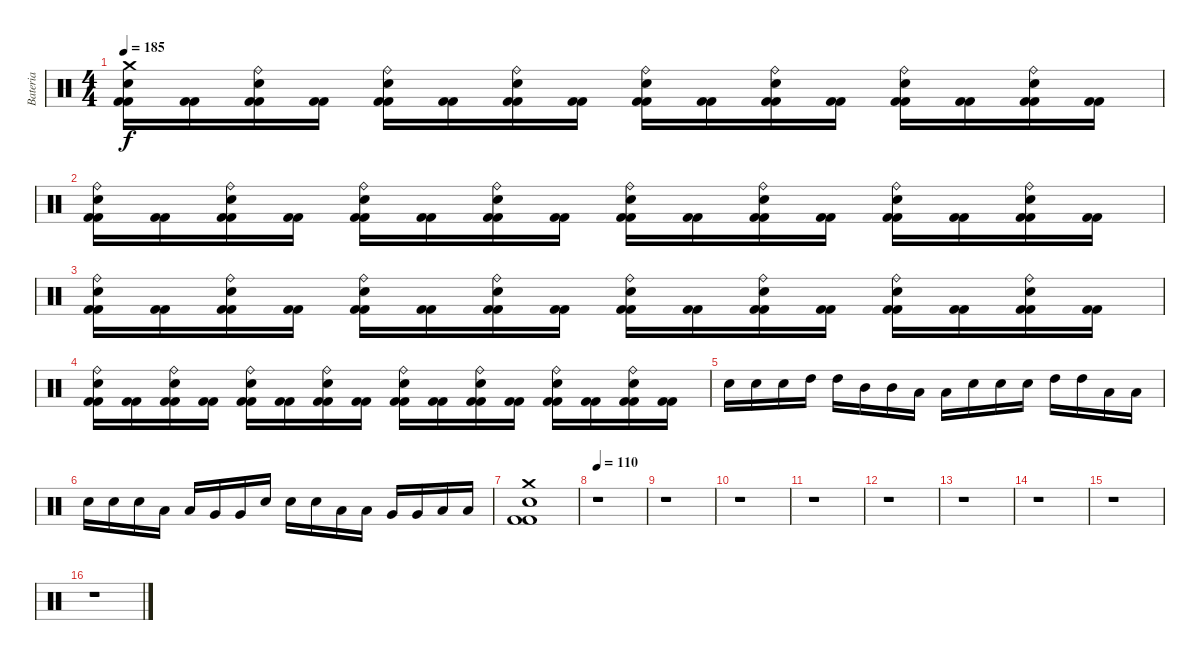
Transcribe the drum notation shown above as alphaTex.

\track ("Bateria" "Bateria") {instrument percussion}
\staff {score}
\articulation defaults
\ts (4 4)
\tempo 185
\clef neutral
\ks c
("Kick (hit) 2" "Kick (hit) 2" "Electric Snare (hit)" "Crash medium (hit)").16{dy f} ("Kick (hit) 2" "Kick (hit) 2").16 ("Kick (hit) 2" "Kick (hit) 2" "Ride (bell)" "Electric Snare (hit)").16 ("Kick (hit) 2" "Kick (hit) 2").16 ("Kick (hit) 2" "Kick (hit) 2" "Electric Snare (hit)" "Ride (bell)").16 ("Kick (hit) 2" "Kick (hit) 2").16 ("Kick (hit) 2" "Kick (hit) 2" "Ride (bell)" "Electric Snare (hit)").16 ("Kick (hit) 2" "Kick (hit) 2").16 ("Kick (hit) 2" "Kick (hit) 2" "Electric Snare (hit)" "Ride (bell)").16 ("Kick (hit) 2" "Kick (hit) 2").16 ("Kick (hit) 2" "Kick (hit) 2" "Ride (bell)" "Electric Snare (hit)").16 ("Kick (hit) 2" "Kick (hit) 2").16 ("Kick (hit) 2" "Kick (hit) 2" "Electric Snare (hit)" "Ride (bell)").16 ("Kick (hit) 2" "Kick (hit) 2").16 ("Kick (hit) 2" "Kick (hit) 2" "Ride (bell)" "Electric Snare (hit)").16 ("Kick (hit) 2" "Kick (hit) 2").16 |
("Kick (hit) 2" "Kick (hit) 2" "Electric Snare (hit)" "Ride (bell)").16 ("Kick (hit) 2" "Kick (hit) 2").16 ("Kick (hit) 2" "Kick (hit) 2" "Ride (bell)" "Electric Snare (hit)").16 ("Kick (hit) 2" "Kick (hit) 2").16 ("Kick (hit) 2" "Kick (hit) 2" "Electric Snare (hit)" "Ride (bell)").16 ("Kick (hit) 2" "Kick (hit) 2").16 ("Kick (hit) 2" "Kick (hit) 2" "Ride (bell)" "Electric Snare (hit)").16 ("Kick (hit) 2" "Kick (hit) 2").16 ("Kick (hit) 2" "Kick (hit) 2" "Electric Snare (hit)" "Ride (bell)").16 ("Kick (hit) 2" "Kick (hit) 2").16 ("Kick (hit) 2" "Kick (hit) 2" "Ride (bell)" "Electric Snare (hit)").16 ("Kick (hit) 2" "Kick (hit) 2").16 ("Kick (hit) 2" "Kick (hit) 2" "Electric Snare (hit)" "Ride (bell)").16 ("Kick (hit) 2" "Kick (hit) 2").16 ("Kick (hit) 2" "Kick (hit) 2" "Ride (bell)" "Electric Snare (hit)").16 ("Kick (hit) 2" "Kick (hit) 2").16 |
("Kick (hit) 2" "Kick (hit) 2" "Electric Snare (hit)" "Ride (bell)").16 ("Kick (hit) 2" "Kick (hit) 2").16 ("Kick (hit) 2" "Kick (hit) 2" "Ride (bell)" "Electric Snare (hit)").16 ("Kick (hit) 2" "Kick (hit) 2").16 ("Kick (hit) 2" "Kick (hit) 2" "Electric Snare (hit)" "Ride (bell)").16 ("Kick (hit) 2" "Kick (hit) 2").16 ("Kick (hit) 2" "Kick (hit) 2" "Ride (bell)" "Electric Snare (hit)").16 ("Kick (hit) 2" "Kick (hit) 2").16 ("Kick (hit) 2" "Kick (hit) 2" "Electric Snare (hit)" "Ride (bell)").16 ("Kick (hit) 2" "Kick (hit) 2").16 ("Kick (hit) 2" "Kick (hit) 2" "Ride (bell)" "Electric Snare (hit)").16 ("Kick (hit) 2" "Kick (hit) 2").16 ("Kick (hit) 2" "Kick (hit) 2" "Electric Snare (hit)" "Ride (bell)").16 ("Kick (hit) 2" "Kick (hit) 2").16 ("Kick (hit) 2" "Kick (hit) 2" "Ride (bell)" "Electric Snare (hit)").16 ("Kick (hit) 2" "Kick (hit) 2").16 |
("Kick (hit) 2" "Kick (hit) 2" "Electric Snare (hit)" "Ride (bell)").16 ("Kick (hit) 2" "Kick (hit) 2").16 ("Kick (hit) 2" "Kick (hit) 2" "Ride (bell)" "Electric Snare (hit)").16 ("Kick (hit) 2" "Kick (hit) 2").16 ("Kick (hit) 2" "Kick (hit) 2" "Electric Snare (hit)" "Ride (bell)").16 ("Kick (hit) 2" "Kick (hit) 2").16 ("Kick (hit) 2" "Kick (hit) 2" "Ride (bell)" "Electric Snare (hit)").16 ("Kick (hit) 2" "Kick (hit) 2").16 ("Kick (hit) 2" "Kick (hit) 2" "Electric Snare (hit)" "Ride (bell)").16 ("Kick (hit) 2" "Kick (hit) 2").16 ("Kick (hit) 2" "Kick (hit) 2" "Ride (bell)" "Electric Snare (hit)").16 ("Kick (hit) 2" "Kick (hit) 2").16 ("Kick (hit) 2" "Kick (hit) 2" "Electric Snare (hit)" "Ride (bell)").16 ("Kick (hit) 2" "Kick (hit) 2").16 ("Kick (hit) 2" "Kick (hit) 2" "Ride (bell)" "Electric Snare (hit)").16 ("Kick (hit) 2" "Kick (hit) 2").16 |
"Electric Snare (hit)".16 "Electric Snare (hit)".16 "Electric Snare (hit)".16 "High Tom (hit)".16 "High Tom (hit)".16 "Mid Tom (hit)".16 "Mid Tom (hit)".16 "Low Tom (hit)".16 "Low Tom (hit)".16 "Electric Snare (hit)".16 "Electric Snare (hit)".16 "Electric Snare (hit)".16 "High Tom (hit)".16 "High Tom (hit)".16 "Low Tom (hit)".16 "Low Tom (hit)".16 |
"Electric Snare (hit)".16 "Electric Snare (hit)".16 "Electric Snare (hit)".16 "Low Tom (hit)".16 "Low Tom (hit)".16 "Very Low Tom (hit)".16 "Very Low Tom (hit)".16 "Electric Snare (hit)".16 "Electric Snare (hit)".16 "Electric Snare (hit)".16 "Low Floor Tom (hit)".16 "Low Floor Tom (hit)".16 "Very Low Tom (hit)".16 "Very Low Tom (hit)".16 "Low Tom (hit)".16 "Low Tom (hit)".16 |
("Kick (hit) 2" "Kick (hit) 2" "Electric Snare (hit)" "Crash medium (hit)").1 |
\tempo 110
r.1 |
r.1 |
r.1 |
r.1 |
r.1 |
r.1 |
r.1 |
r.1 |
r.1
